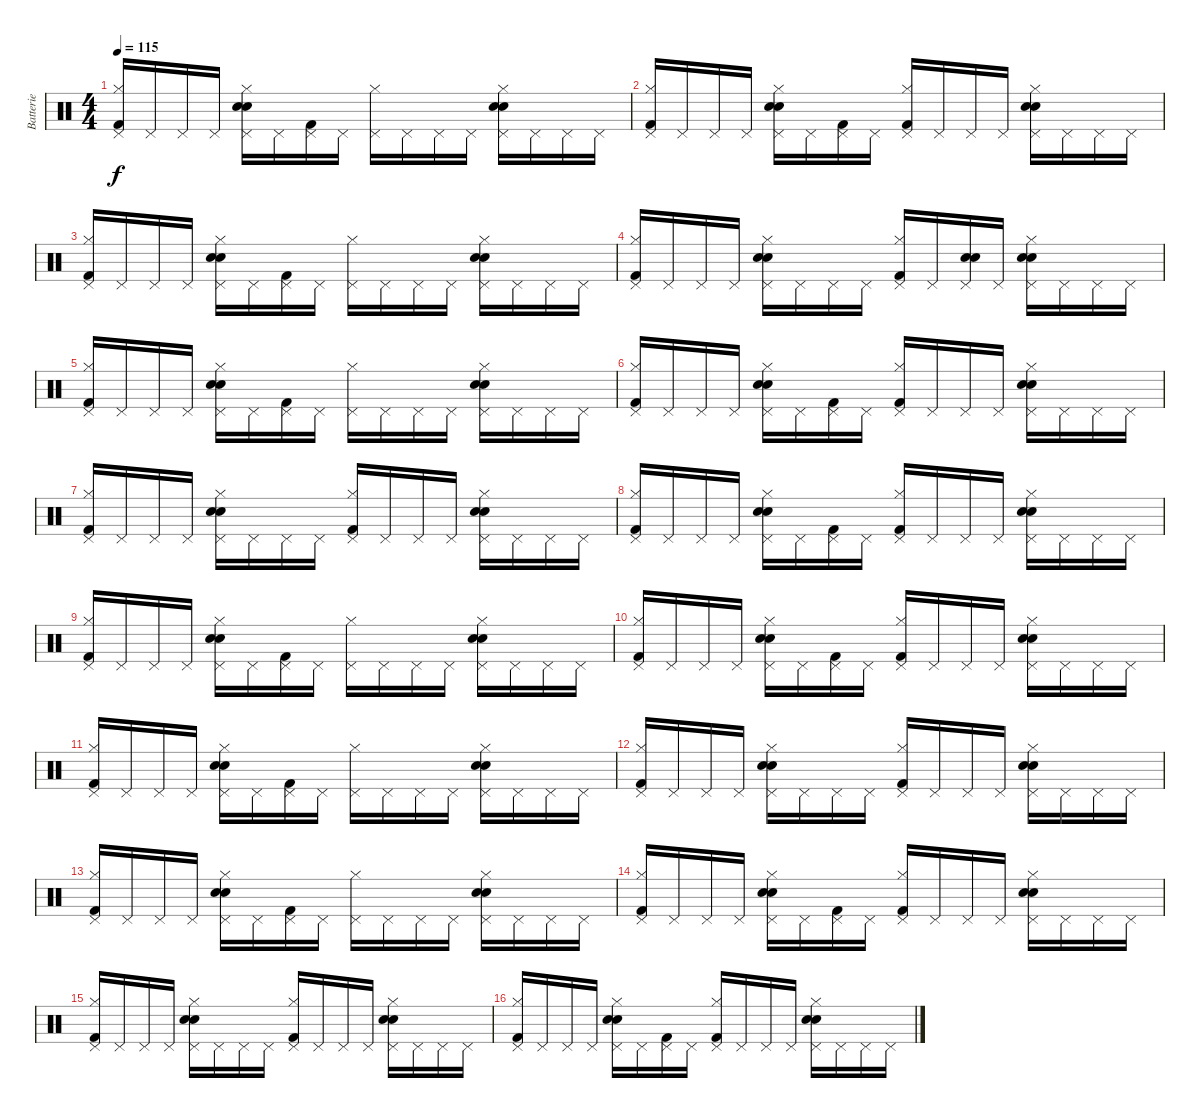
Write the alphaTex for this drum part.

\track ("Batterie" "Batterie") {instrument percussion}
\staff {score}
\articulation defaults
\ts (4 4)
\tempo 115
\clef neutral
\ks c
("Kick (hit) 2" "Hi-Hat (closed)" "Pedal Hi-Hat (hit)").16{dy f} "Pedal Hi-Hat (hit)".16 "Pedal Hi-Hat (hit)".16 "Pedal Hi-Hat (hit)".16 ("Electric Snare (hit)" "Snare (hit) 2" "Hi-Hat (closed)" "Pedal Hi-Hat (hit)").16 "Pedal Hi-Hat (hit)".16 ("Kick (hit) 2" "Pedal Hi-Hat (hit)").16 "Pedal Hi-Hat (hit)".16 ("Hi-Hat (closed)" "Pedal Hi-Hat (hit)").16 "Pedal Hi-Hat (hit)".16 "Pedal Hi-Hat (hit)".16 "Pedal Hi-Hat (hit)".16 ("Electric Snare (hit)" "Snare (hit) 2" "Hi-Hat (closed)" "Pedal Hi-Hat (hit)").16 "Pedal Hi-Hat (hit)".16 "Pedal Hi-Hat (hit)".16 "Pedal Hi-Hat (hit)".16 |
("Kick (hit) 2" "Hi-Hat (closed)" "Pedal Hi-Hat (hit)").16 "Pedal Hi-Hat (hit)".16 "Pedal Hi-Hat (hit)".16 "Pedal Hi-Hat (hit)".16 ("Electric Snare (hit)" "Snare (hit) 2" "Hi-Hat (closed)" "Pedal Hi-Hat (hit)").16 "Pedal Hi-Hat (hit)".16 ("Kick (hit) 2" "Pedal Hi-Hat (hit)").16 "Pedal Hi-Hat (hit)".16 ("Kick (hit) 2" "Hi-Hat (closed)" "Pedal Hi-Hat (hit)").16 "Pedal Hi-Hat (hit)".16 "Pedal Hi-Hat (hit)".16 "Pedal Hi-Hat (hit)".16 ("Electric Snare (hit)" "Snare (hit) 2" "Hi-Hat (closed)" "Pedal Hi-Hat (hit)").16 "Pedal Hi-Hat (hit)".16 "Pedal Hi-Hat (hit)".16 "Pedal Hi-Hat (hit)".16 |
("Kick (hit) 2" "Hi-Hat (closed)" "Pedal Hi-Hat (hit)").16 "Pedal Hi-Hat (hit)".16 "Pedal Hi-Hat (hit)".16 "Pedal Hi-Hat (hit)".16 ("Electric Snare (hit)" "Snare (hit) 2" "Hi-Hat (closed)" "Pedal Hi-Hat (hit)").16 "Pedal Hi-Hat (hit)".16 ("Kick (hit) 2" "Pedal Hi-Hat (hit)").16 "Pedal Hi-Hat (hit)".16 ("Hi-Hat (closed)" "Pedal Hi-Hat (hit)").16 "Pedal Hi-Hat (hit)".16 "Pedal Hi-Hat (hit)".16 "Pedal Hi-Hat (hit)".16 ("Electric Snare (hit)" "Snare (hit) 2" "Hi-Hat (closed)" "Pedal Hi-Hat (hit)").16 "Pedal Hi-Hat (hit)".16 "Pedal Hi-Hat (hit)".16 "Pedal Hi-Hat (hit)".16 |
("Kick (hit) 2" "Hi-Hat (closed)" "Pedal Hi-Hat (hit)").16 "Pedal Hi-Hat (hit)".16 "Pedal Hi-Hat (hit)".16 "Pedal Hi-Hat (hit)".16 ("Electric Snare (hit)" "Snare (hit) 2" "Hi-Hat (closed)" "Pedal Hi-Hat (hit)").16 "Pedal Hi-Hat (hit)".16 "Pedal Hi-Hat (hit)".16 "Pedal Hi-Hat (hit)".16 ("Kick (hit) 2" "Hi-Hat (closed)" "Pedal Hi-Hat (hit)").16 "Pedal Hi-Hat (hit)".16 ("Electric Snare (hit)" "Snare (hit) 2" "Pedal Hi-Hat (hit)").16 "Pedal Hi-Hat (hit)".16 ("Electric Snare (hit)" "Snare (hit) 2" "Hi-Hat (closed)" "Pedal Hi-Hat (hit)").16 "Pedal Hi-Hat (hit)".16 "Pedal Hi-Hat (hit)".16 "Pedal Hi-Hat (hit)".16 |
("Kick (hit) 2" "Hi-Hat (closed)" "Pedal Hi-Hat (hit)").16 "Pedal Hi-Hat (hit)".16 "Pedal Hi-Hat (hit)".16 "Pedal Hi-Hat (hit)".16 ("Electric Snare (hit)" "Snare (hit) 2" "Hi-Hat (closed)" "Pedal Hi-Hat (hit)").16 "Pedal Hi-Hat (hit)".16 ("Kick (hit) 2" "Pedal Hi-Hat (hit)").16 "Pedal Hi-Hat (hit)".16 ("Hi-Hat (closed)" "Pedal Hi-Hat (hit)").16 "Pedal Hi-Hat (hit)".16 "Pedal Hi-Hat (hit)".16 "Pedal Hi-Hat (hit)".16 ("Electric Snare (hit)" "Snare (hit) 2" "Hi-Hat (closed)" "Pedal Hi-Hat (hit)").16 "Pedal Hi-Hat (hit)".16 "Pedal Hi-Hat (hit)".16 "Pedal Hi-Hat (hit)".16 |
("Kick (hit) 2" "Hi-Hat (closed)" "Pedal Hi-Hat (hit)").16 "Pedal Hi-Hat (hit)".16 "Pedal Hi-Hat (hit)".16 "Pedal Hi-Hat (hit)".16 ("Electric Snare (hit)" "Snare (hit) 2" "Hi-Hat (closed)" "Pedal Hi-Hat (hit)").16 "Pedal Hi-Hat (hit)".16 ("Kick (hit) 2" "Pedal Hi-Hat (hit)").16 "Pedal Hi-Hat (hit)".16 ("Kick (hit) 2" "Hi-Hat (closed)" "Pedal Hi-Hat (hit)").16 "Pedal Hi-Hat (hit)".16 "Pedal Hi-Hat (hit)".16 "Pedal Hi-Hat (hit)".16 ("Electric Snare (hit)" "Snare (hit) 2" "Hi-Hat (closed)" "Pedal Hi-Hat (hit)").16 "Pedal Hi-Hat (hit)".16 "Pedal Hi-Hat (hit)".16 "Pedal Hi-Hat (hit)".16 |
("Kick (hit) 2" "Hi-Hat (closed)" "Pedal Hi-Hat (hit)").16 "Pedal Hi-Hat (hit)".16 "Pedal Hi-Hat (hit)".16 "Pedal Hi-Hat (hit)".16 ("Electric Snare (hit)" "Snare (hit) 2" "Hi-Hat (closed)" "Pedal Hi-Hat (hit)").16 "Pedal Hi-Hat (hit)".16 "Pedal Hi-Hat (hit)".16 "Pedal Hi-Hat (hit)".16 ("Kick (hit) 2" "Hi-Hat (closed)" "Pedal Hi-Hat (hit)").16 "Pedal Hi-Hat (hit)".16 "Pedal Hi-Hat (hit)".16 "Pedal Hi-Hat (hit)".16 ("Electric Snare (hit)" "Snare (hit) 2" "Hi-Hat (closed)" "Pedal Hi-Hat (hit)").16 "Pedal Hi-Hat (hit)".16 "Pedal Hi-Hat (hit)".16 "Pedal Hi-Hat (hit)".16 |
("Kick (hit) 2" "Hi-Hat (closed)" "Pedal Hi-Hat (hit)").16 "Pedal Hi-Hat (hit)".16 "Pedal Hi-Hat (hit)".16 "Pedal Hi-Hat (hit)".16 ("Electric Snare (hit)" "Snare (hit) 2" "Hi-Hat (closed)" "Pedal Hi-Hat (hit)").16 "Pedal Hi-Hat (hit)".16 ("Kick (hit) 2" "Pedal Hi-Hat (hit)").16 "Pedal Hi-Hat (hit)".16 ("Kick (hit) 2" "Hi-Hat (closed)" "Pedal Hi-Hat (hit)").16 "Pedal Hi-Hat (hit)".16 "Pedal Hi-Hat (hit)".16 "Pedal Hi-Hat (hit)".16 ("Electric Snare (hit)" "Snare (hit) 2" "Hi-Hat (closed)" "Pedal Hi-Hat (hit)").16 "Pedal Hi-Hat (hit)".16 "Pedal Hi-Hat (hit)".16 "Pedal Hi-Hat (hit)".16 |
("Kick (hit) 2" "Hi-Hat (closed)" "Pedal Hi-Hat (hit)").16 "Pedal Hi-Hat (hit)".16 "Pedal Hi-Hat (hit)".16 "Pedal Hi-Hat (hit)".16 ("Electric Snare (hit)" "Snare (hit) 2" "Hi-Hat (closed)" "Pedal Hi-Hat (hit)").16 "Pedal Hi-Hat (hit)".16 ("Kick (hit) 2" "Pedal Hi-Hat (hit)").16 "Pedal Hi-Hat (hit)".16 ("Hi-Hat (closed)" "Pedal Hi-Hat (hit)").16 "Pedal Hi-Hat (hit)".16 "Pedal Hi-Hat (hit)".16 "Pedal Hi-Hat (hit)".16 ("Electric Snare (hit)" "Snare (hit) 2" "Hi-Hat (closed)" "Pedal Hi-Hat (hit)").16 "Pedal Hi-Hat (hit)".16 "Pedal Hi-Hat (hit)".16 "Pedal Hi-Hat (hit)".16 |
("Kick (hit) 2" "Hi-Hat (closed)" "Pedal Hi-Hat (hit)").16 "Pedal Hi-Hat (hit)".16 "Pedal Hi-Hat (hit)".16 "Pedal Hi-Hat (hit)".16 ("Electric Snare (hit)" "Snare (hit) 2" "Hi-Hat (closed)" "Pedal Hi-Hat (hit)").16 "Pedal Hi-Hat (hit)".16 ("Kick (hit) 2" "Pedal Hi-Hat (hit)").16 "Pedal Hi-Hat (hit)".16 ("Kick (hit) 2" "Hi-Hat (closed)" "Pedal Hi-Hat (hit)").16 "Pedal Hi-Hat (hit)".16 "Pedal Hi-Hat (hit)".16 "Pedal Hi-Hat (hit)".16 ("Electric Snare (hit)" "Snare (hit) 2" "Hi-Hat (closed)" "Pedal Hi-Hat (hit)").16 "Pedal Hi-Hat (hit)".16 "Pedal Hi-Hat (hit)".16 "Pedal Hi-Hat (hit)".16 |
("Kick (hit) 2" "Hi-Hat (closed)" "Pedal Hi-Hat (hit)").16 "Pedal Hi-Hat (hit)".16 "Pedal Hi-Hat (hit)".16 "Pedal Hi-Hat (hit)".16 ("Electric Snare (hit)" "Snare (hit) 2" "Hi-Hat (closed)" "Pedal Hi-Hat (hit)").16 "Pedal Hi-Hat (hit)".16 ("Kick (hit) 2" "Pedal Hi-Hat (hit)").16 "Pedal Hi-Hat (hit)".16 ("Hi-Hat (closed)" "Pedal Hi-Hat (hit)").16 "Pedal Hi-Hat (hit)".16 "Pedal Hi-Hat (hit)".16 "Pedal Hi-Hat (hit)".16 ("Electric Snare (hit)" "Snare (hit) 2" "Hi-Hat (closed)" "Pedal Hi-Hat (hit)").16 "Pedal Hi-Hat (hit)".16 "Pedal Hi-Hat (hit)".16 "Pedal Hi-Hat (hit)".16 |
("Kick (hit) 2" "Hi-Hat (closed)" "Pedal Hi-Hat (hit)").16 "Pedal Hi-Hat (hit)".16 "Pedal Hi-Hat (hit)".16 "Pedal Hi-Hat (hit)".16 ("Electric Snare (hit)" "Snare (hit) 2" "Hi-Hat (closed)" "Pedal Hi-Hat (hit)").16 "Pedal Hi-Hat (hit)".16 "Pedal Hi-Hat (hit)".16 "Pedal Hi-Hat (hit)".16 ("Kick (hit) 2" "Hi-Hat (closed)" "Pedal Hi-Hat (hit)").16 "Pedal Hi-Hat (hit)".16 "Pedal Hi-Hat (hit)".16 "Pedal Hi-Hat (hit)".16 ("Electric Snare (hit)" "Snare (hit) 2" "Hi-Hat (closed)" "Pedal Hi-Hat (hit)").16 "Pedal Hi-Hat (hit)".16 "Pedal Hi-Hat (hit)".16 "Pedal Hi-Hat (hit)".16 |
("Kick (hit) 2" "Hi-Hat (closed)" "Pedal Hi-Hat (hit)").16 "Pedal Hi-Hat (hit)".16 "Pedal Hi-Hat (hit)".16 "Pedal Hi-Hat (hit)".16 ("Electric Snare (hit)" "Snare (hit) 2" "Hi-Hat (closed)" "Pedal Hi-Hat (hit)").16 "Pedal Hi-Hat (hit)".16 ("Kick (hit) 2" "Pedal Hi-Hat (hit)").16 "Pedal Hi-Hat (hit)".16 ("Hi-Hat (closed)" "Pedal Hi-Hat (hit)").16 "Pedal Hi-Hat (hit)".16 "Pedal Hi-Hat (hit)".16 "Pedal Hi-Hat (hit)".16 ("Electric Snare (hit)" "Snare (hit) 2" "Hi-Hat (closed)" "Pedal Hi-Hat (hit)").16 "Pedal Hi-Hat (hit)".16 "Pedal Hi-Hat (hit)".16 "Pedal Hi-Hat (hit)".16 |
("Kick (hit) 2" "Hi-Hat (closed)" "Pedal Hi-Hat (hit)").16 "Pedal Hi-Hat (hit)".16 "Pedal Hi-Hat (hit)".16 "Pedal Hi-Hat (hit)".16 ("Electric Snare (hit)" "Snare (hit) 2" "Hi-Hat (closed)" "Pedal Hi-Hat (hit)").16 "Pedal Hi-Hat (hit)".16 ("Kick (hit) 2" "Pedal Hi-Hat (hit)").16 "Pedal Hi-Hat (hit)".16 ("Kick (hit) 2" "Hi-Hat (closed)" "Pedal Hi-Hat (hit)").16 "Pedal Hi-Hat (hit)".16 "Pedal Hi-Hat (hit)".16 "Pedal Hi-Hat (hit)".16 ("Electric Snare (hit)" "Snare (hit) 2" "Hi-Hat (closed)" "Pedal Hi-Hat (hit)").16 "Pedal Hi-Hat (hit)".16 "Pedal Hi-Hat (hit)".16 "Pedal Hi-Hat (hit)".16 |
("Kick (hit) 2" "Hi-Hat (closed)" "Pedal Hi-Hat (hit)").16 "Pedal Hi-Hat (hit)".16 "Pedal Hi-Hat (hit)".16 "Pedal Hi-Hat (hit)".16 ("Electric Snare (hit)" "Snare (hit) 2" "Hi-Hat (closed)" "Pedal Hi-Hat (hit)").16 "Pedal Hi-Hat (hit)".16 "Pedal Hi-Hat (hit)".16 "Pedal Hi-Hat (hit)".16 ("Kick (hit) 2" "Hi-Hat (closed)" "Pedal Hi-Hat (hit)").16 "Pedal Hi-Hat (hit)".16 "Pedal Hi-Hat (hit)".16 "Pedal Hi-Hat (hit)".16 ("Electric Snare (hit)" "Snare (hit) 2" "Hi-Hat (closed)" "Pedal Hi-Hat (hit)").16 "Pedal Hi-Hat (hit)".16 "Pedal Hi-Hat (hit)".16 "Pedal Hi-Hat (hit)".16 |
("Kick (hit) 2" "Hi-Hat (closed)" "Pedal Hi-Hat (hit)").16 "Pedal Hi-Hat (hit)".16 "Pedal Hi-Hat (hit)".16 "Pedal Hi-Hat (hit)".16 ("Electric Snare (hit)" "Snare (hit) 2" "Hi-Hat (closed)" "Pedal Hi-Hat (hit)").16 "Pedal Hi-Hat (hit)".16 ("Kick (hit) 2" "Pedal Hi-Hat (hit)").16 "Pedal Hi-Hat (hit)".16 ("Kick (hit) 2" "Hi-Hat (closed)" "Pedal Hi-Hat (hit)").16 "Pedal Hi-Hat (hit)".16 "Pedal Hi-Hat (hit)".16 "Pedal Hi-Hat (hit)".16 ("Electric Snare (hit)" "Snare (hit) 2" "Hi-Hat (closed)" "Pedal Hi-Hat (hit)").16 "Pedal Hi-Hat (hit)".16 "Pedal Hi-Hat (hit)".16 "Pedal Hi-Hat (hit)".16
